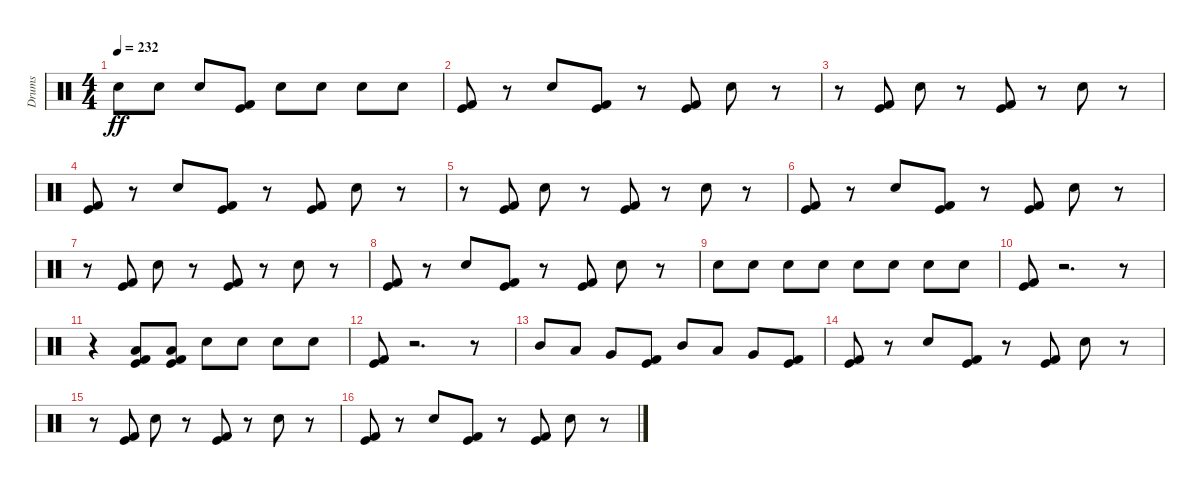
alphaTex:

\track ("Drums" "Drums") {instrument percussion}
\staff {score}
\articulation defaults
\ts (4 4)
\tempo 232
\clef neutral
\ks c "Snare (hit) 2".8{dy ff} "Snare (hit) 2".8 "Snare (hit) 2".8
("Kick (hit)" "Kick (hit) 2").8 "Snare (hit) 2".8 "Snare (hit) 2".8 "Snare (hit) 2".8 "Snare (hit) 2".8 |
("Kick (hit)" "Kick (hit) 2").8 r.8 "Snare (hit) 2".8 ("Kick (hit)" "Kick (hit) 2").8 r.8 ("Kick (hit)" "Kick (hit) 2").8 "Snare (hit) 2".8 r.8 |
r.8 ("Kick (hit)" "Kick (hit) 2").8 "Snare (hit) 2".8 r.8 ("Kick (hit)" "Kick (hit) 2").8 r.8 "Snare (hit) 2".8 r.8 |
("Kick (hit)" "Kick (hit) 2").8 r.8 "Snare (hit) 2".8 ("Kick (hit)" "Kick (hit) 2").8 r.8 ("Kick (hit)" "Kick (hit) 2").8 "Snare (hit) 2".8 r.8 |
r.8 ("Kick (hit)" "Kick (hit) 2").8 "Snare (hit) 2".8 r.8 ("Kick (hit)" "Kick (hit) 2").8 r.8 "Snare (hit) 2".8 r.8 |
("Kick (hit)" "Kick (hit) 2").8 r.8 "Snare (hit) 2".8 ("Kick (hit)" "Kick (hit) 2").8 r.8 ("Kick (hit)" "Kick (hit) 2").8 "Snare (hit) 2".8 r.8 |
r.8 ("Kick (hit)" "Kick (hit) 2").8 "Snare (hit) 2".8 r.8 ("Kick (hit)" "Kick (hit) 2").8 r.8 "Snare (hit) 2".8 r.8 |
("Kick (hit)" "Kick (hit) 2").8 r.8 "Snare (hit) 2".8 ("Kick (hit)" "Kick (hit) 2").8 r.8 ("Kick (hit)" "Kick (hit) 2").8 "Snare (hit) 2".8 r.8 |
"Snare (hit) 2".8 "Snare (hit) 2".8 "Snare (hit) 2".8 "Snare (hit) 2".8 "Snare (hit) 2".8 "Snare (hit) 2".8 "Snare (hit) 2".8 "Snare (hit) 2".8 |
("Kick (hit)" "Kick (hit) 2").8 r.2{d} r.8 |
r.4 ("Kick (hit)" "Kick (hit) 2" "Low Floor Tom (hit)").8 ("Kick (hit)" "Kick (hit) 2" "Low Floor Tom (hit)").8 "Snare (hit) 2".8 "Snare (hit) 2".8 "Snare (hit) 2".8 "Snare (hit) 2".8 |
("Kick (hit)" "Kick (hit) 2").8 r.2{d} r.8 |
"Mid Tom (hit)".8 "Low Tom (hit)".8 "Very Low Tom (hit)".8 ("Kick (hit)" "Kick (hit) 2").8 "Mid Tom (hit)".8 "Low Tom (hit)".8 "Very Low Tom (hit)".8 ("Kick (hit)" "Kick (hit) 2").8 |
("Kick (hit)" "Kick (hit) 2").8 r.8 "Snare (hit) 2".8 ("Kick (hit)" "Kick (hit) 2").8 r.8 ("Kick (hit)" "Kick (hit) 2").8 "Snare (hit) 2".8 r.8 |
r.8 ("Kick (hit)" "Kick (hit) 2").8 "Snare (hit) 2".8 r.8 ("Kick (hit)" "Kick (hit) 2").8 r.8 "Snare (hit) 2".8 r.8 |
("Kick (hit)" "Kick (hit) 2").8 r.8 "Snare (hit) 2".8 ("Kick (hit)" "Kick (hit) 2").8 r.8 ("Kick (hit)" "Kick (hit) 2").8 "Snare (hit) 2".8 r.8
